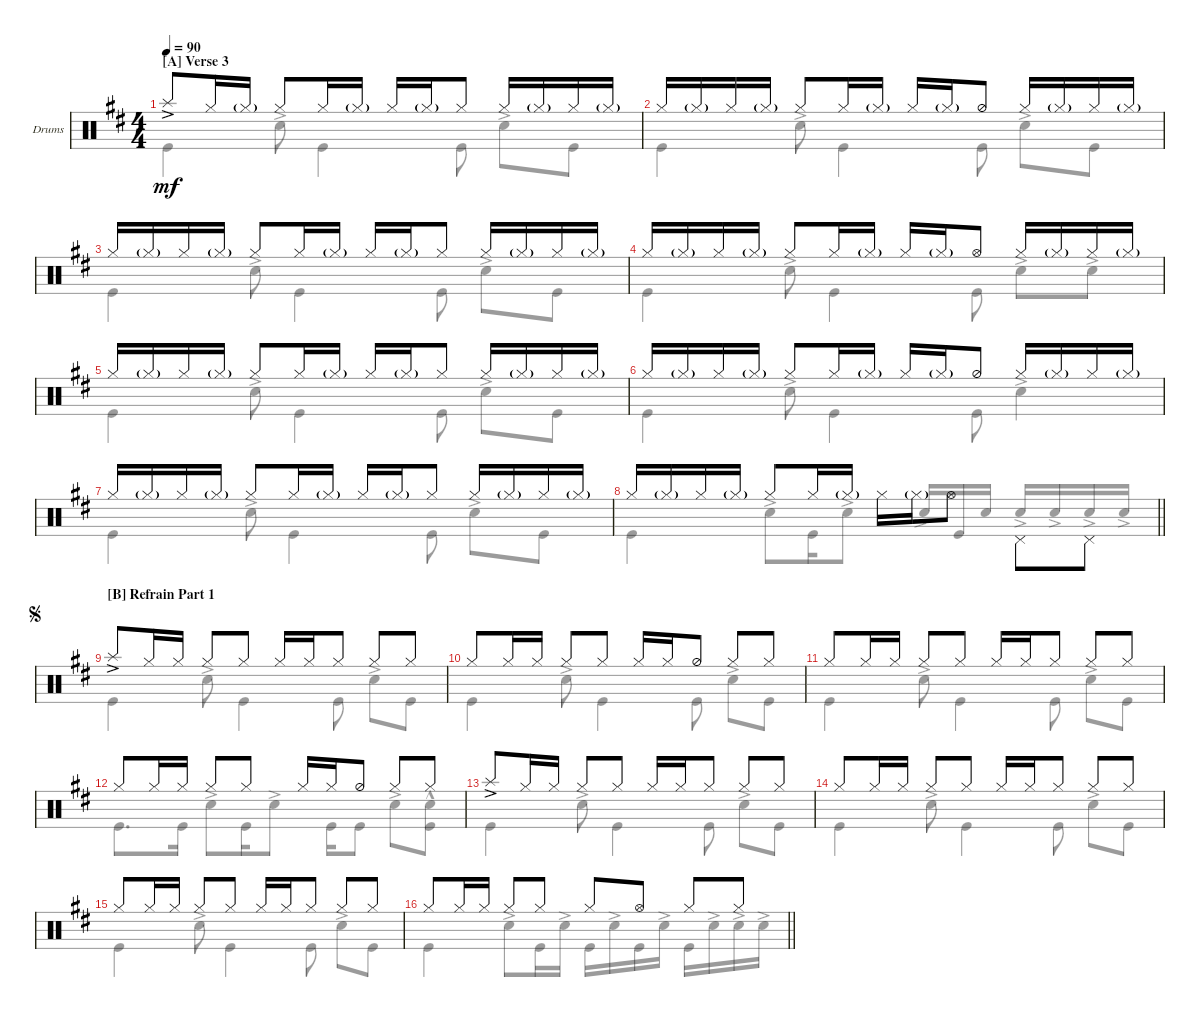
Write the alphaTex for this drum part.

\defaultSystemsLayout 4
\bracketExtendMode groupsimilarinstruments
\firstSystemTrackNameOrientation horizontal
\otherSystemsTrackNameOrientation horizontal
\track ("Drumkit" "Drums") {instrument percussion}
\staff {score}
\articulation defaults
\voice
\ts (4 4)
\section ("A" "Verse 3")
\tempo 90
\clef neutral
\scale
0.5
\ks d "Splash (hit)"{ac}.8{dy mf} "Hi-Hat (closed)".16 "Hi-Hat (closed)"{g}.16 "Hi-Hat (closed)".8 "Hi-Hat (closed)".16 "Hi-Hat (closed)"{g}.16 "Hi-Hat (closed)".16 "Hi-Hat (closed)"{g}.16 "Hi-Hat (closed)".8 "Hi-Hat (closed)".16 "Hi-Hat (closed)"{g}.16 "Hi-Hat (closed)".16 "Hi-Hat (closed)"{g}.16
|
\scale
0.5 "Hi-Hat (closed)".16 "Hi-Hat (closed)"{g}.16 "Hi-Hat (closed)".16 "Hi-Hat (closed)"{g}.16 "Hi-Hat (closed)".8 "Hi-Hat (closed)".16 "Hi-Hat (closed)"{g}.16 "Hi-Hat (closed)".16 "Hi-Hat (closed)"{g}.16 "Hi-Hat (half)".8 "Hi-Hat (closed)".16 "Hi-Hat (closed)"{g}.16 "Hi-Hat (closed)".16 "Hi-Hat (closed)"{g}.16 |
\scale
0.5 "Hi-Hat (closed)".16 "Hi-Hat (closed)"{g}.16 "Hi-Hat (closed)".16 "Hi-Hat (closed)"{g}.16 "Hi-Hat (closed)".8 "Hi-Hat (closed)".16 "Hi-Hat (closed)"{g}.16 "Hi-Hat (closed)".16 "Hi-Hat (closed)"{g}.16 "Hi-Hat (closed)".8 "Hi-Hat (closed)".16 "Hi-Hat (closed)"{g}.16 "Hi-Hat (closed)".16 "Hi-Hat (closed)"{g}.16 |
\scale
0.5 "Hi-Hat (closed)".16 "Hi-Hat (closed)"{g}.16 "Hi-Hat (closed)".16 "Hi-Hat (closed)"{g}.16 "Hi-Hat (closed)".8 "Hi-Hat (closed)".16 "Hi-Hat (closed)"{g}.16 "Hi-Hat (closed)".16 "Hi-Hat (closed)"{g}.16 "Hi-Hat (open)".8 "Hi-Hat (closed)".16 "Hi-Hat (closed)"{g}.16 "Hi-Hat (closed)".16 "Hi-Hat (closed)"{g}.16 |
\scale
0.5 "Hi-Hat (closed)".16 "Hi-Hat (closed)"{g}.16 "Hi-Hat (closed)".16 "Hi-Hat (closed)"{g}.16 "Hi-Hat (closed)".8 "Hi-Hat (closed)".16 "Hi-Hat (closed)"{g}.16 "Hi-Hat (closed)".16 "Hi-Hat (closed)"{g}.16 "Hi-Hat (closed)".8 "Hi-Hat (closed)".16 "Hi-Hat (closed)"{g}.16 "Hi-Hat (closed)".16 "Hi-Hat (closed)"{g}.16 |
\scale
0.5 "Hi-Hat (closed)".16 "Hi-Hat (closed)"{g}.16 "Hi-Hat (closed)".16 "Hi-Hat (closed)"{g}.16 "Hi-Hat (closed)".8 "Hi-Hat (closed)".16 "Hi-Hat (closed)"{g}.16 "Hi-Hat (closed)".16 "Hi-Hat (closed)"{g}.16 "Hi-Hat (half)".8 "Hi-Hat (closed)".16 "Hi-Hat (closed)"{g}.16 "Hi-Hat (closed)".16 "Hi-Hat (closed)"{g}.16 |
\scale
0.5 "Hi-Hat (closed)".16 "Hi-Hat (closed)"{g}.16 "Hi-Hat (closed)".16 "Hi-Hat (closed)"{g}.16 "Hi-Hat (closed)".8 "Hi-Hat (closed)".16 "Hi-Hat (closed)"{g}.16 "Hi-Hat (closed)".16 "Hi-Hat (closed)"{g}.16 "Hi-Hat (closed)".8 "Hi-Hat (closed)".16 "Hi-Hat (closed)"{g}.16 "Hi-Hat (closed)".16 "Hi-Hat (closed)"{g}.16 |
\scale
0.5
\barLineRight lightlight "Hi-Hat (closed)".16 "Hi-Hat (closed)"{g}.16 "Hi-Hat (closed)".16 "Hi-Hat (closed)"{g}.16 "Hi-Hat (closed)".8 "Hi-Hat (closed)".16 "Hi-Hat (closed)"{g}.16 "Hi-Hat (closed)".16 "Hi-Hat (closed)"{g}.16 "Hi-Hat (open)".8 "Pedal Hi-Hat (hit)".8{beam invert} "Pedal Hi-Hat (hit)".8
|
\section ("B" "Refrain Part 1")
\jump segno
\scale
0.5 "Splash (hit)"{ac}.8 "Hi-Hat (closed)".16 "Hi-Hat (closed)".16 "Hi-Hat (closed)".8 "Hi-Hat (closed)".8 "Hi-Hat (closed)".16 "Hi-Hat (closed)".16 "Hi-Hat (closed)".8 "Hi-Hat (closed)".8 "Hi-Hat (closed)".8 |
\scale
0.5 "Hi-Hat (closed)".8 "Hi-Hat (closed)".16 "Hi-Hat (closed)".16 "Hi-Hat (closed)".8 "Hi-Hat (closed)".8 "Hi-Hat (closed)".16 "Hi-Hat (closed)".16 "Hi-Hat (half)".8 "Hi-Hat (closed)".8 "Hi-Hat (closed)".8 |
\scale
0.5 "Hi-Hat (closed)".8 "Hi-Hat (closed)".16 "Hi-Hat (closed)".16 "Hi-Hat (closed)".8 "Hi-Hat (closed)".8 "Hi-Hat (closed)".16 "Hi-Hat (closed)".16 "Hi-Hat (closed)".8 "Hi-Hat (closed)".8 "Hi-Hat (closed)".8 |
\scale
0.5 "Hi-Hat (closed)".8 "Hi-Hat (closed)".16 "Hi-Hat (closed)".16 "Hi-Hat (closed)".8 "Hi-Hat (closed)".8 "Hi-Hat (closed)".16 "Hi-Hat (closed)".16 "Hi-Hat (half)".8 "Hi-Hat (closed)".8 "Hi-Hat (closed)".8 |
\scale
0.5 "Splash (hit)"{ac}.8 "Hi-Hat (closed)".16 "Hi-Hat (closed)".16 "Hi-Hat (closed)".8 "Hi-Hat (closed)".8 "Hi-Hat (closed)".16 "Hi-Hat (closed)".16 "Hi-Hat (closed)".8 "Hi-Hat (closed)".8 "Hi-Hat (closed)".8 |
\scale
0.5 "Hi-Hat (closed)".8 "Hi-Hat (closed)".16 "Hi-Hat (closed)".16 "Hi-Hat (closed)".8 "Hi-Hat (closed)".8 "Hi-Hat (closed)".16 "Hi-Hat (closed)".16 "Hi-Hat (closed)".8 "Hi-Hat (closed)".8 "Hi-Hat (closed)".8 |
\scale
0.5 "Hi-Hat (closed)".8 "Hi-Hat (closed)".16 "Hi-Hat (closed)".16 "Hi-Hat (closed)".8 "Hi-Hat (closed)".8 "Hi-Hat (closed)".16 "Hi-Hat (closed)".16 "Hi-Hat (closed)".8 "Hi-Hat (closed)".8 "Hi-Hat (closed)".8 |
\scale
0.5
\barLineRight lightlight "Hi-Hat (closed)".8 "Hi-Hat (closed)".16 "Hi-Hat (closed)".16 "Hi-Hat (closed)".8 "Hi-Hat (closed)".8 "Hi-Hat (closed)".8 "Hi-Hat (open)".8 "Hi-Hat (closed)".8 "Hi-Hat (closed)".8
\voice
\clef neutral
\ottava regular
\simile none
\scale
0.5
\ks d "Kick (hit)".4{dy mf} "Snare (hit) 2"{ac}.8 "Kick (hit)".4 "Kick (hit)".8 "Snare (hit) 2"{ac}.8 "Kick (hit)".8
|
\scale
0.5 "Kick (hit)".4 "Snare (hit) 2"{ac}.8 "Kick (hit)".4 "Kick (hit)".8 "Snare (hit) 2"{ac}.8 "Kick (hit)".8 |
\scale
0.5 "Kick (hit)".4 "Snare (hit) 2"{ac}.8 "Kick (hit)".4 "Kick (hit)".8 "Snare (hit) 2"{ac}.8 "Kick (hit)".8 |
\scale
0.5 "Kick (hit)".4 "Snare (hit) 2"{ac}.8 "Kick (hit)".4 "Kick (hit)".8 "Snare (hit) 2"{ac}.8 "Snare (hit) 2"{ac}.8 |
\scale
0.5 "Kick (hit)".4 "Snare (hit) 2"{ac}.8 "Kick (hit)".4 "Kick (hit)".8 "Snare (hit) 2"{ac}.8 "Kick (hit)".8 |
\scale
0.5 "Kick (hit)".4 "Snare (hit) 2"{ac}.8 "Kick (hit)".4 "Kick (hit)".8 "Snare (hit) 2"{ac}.4 |
\scale
0.5 "Kick (hit)".4 "Snare (hit) 2"{ac}.8 "Kick (hit)".4 "Kick (hit)".8 "Snare (hit) 2"{ac}.8 "Kick (hit)".8 |
\scale
0.5
\barLineRight lightlight "Kick (hit)".4 "Snare (hit) 2"{ac}.8 "Kick (hit)".16 "Snare (hit) 2"{ac}.8 "Snare (hit) 2"{ac}.16 "Kick (hit)".16 "Snare (hit) 2".16 "Snare (hit) 2"{ac}.16{beam invert} "Snare (hit) 2"{ac}.16 "Snare (hit) 2"{ac}.16 "Snare (hit) 2"{ac}.16
|
\scale
0.5 "Kick (hit)".4 "Snare (hit) 2"{ac}.8 "Kick (hit)".4 "Kick (hit)".8 "Snare (hit) 2"{ac}.8 "Kick (hit)".8 |
\scale
0.5 "Kick (hit)".4 "Snare (hit) 2"{ac}.8 "Kick (hit)".4 "Kick (hit)".8 "Snare (hit) 2"{ac}.8 "Kick (hit)".8 |
\scale
0.5 "Kick (hit)".4 "Snare (hit) 2"{ac}.8 "Kick (hit)".4 "Kick (hit)".8 "Snare (hit) 2"{ac}.8 "Kick (hit)".8 |
\scale
0.5 "Kick (hit)".8{d} "Kick (hit)".16 "Snare (hit) 2"{ac}.8 "Kick (hit)".16 "Snare (hit) 2"{ac}.8 "Kick (hit)".16 "Kick (hit)".8 "Snare (hit) 2"{ac}.8 ("Kick (hit)" "Snare (hit) 2"{hac}).8 |
\scale
0.5 "Kick (hit)".4 "Snare (hit) 2"{ac}.8 "Kick (hit)".4 "Kick (hit)".8 "Snare (hit) 2"{ac}.8 "Kick (hit)".8 |
\scale
0.5 "Kick (hit)".4 "Snare (hit) 2"{ac}.8 "Kick (hit)".4 "Kick (hit)".8 "Snare (hit) 2"{ac}.8 "Kick (hit)".8 |
\scale
0.5 "Kick (hit)".4 "Snare (hit) 2"{ac}.8 "Kick (hit)".4 "Kick (hit)".8 "Snare (hit) 2"{ac}.8 "Kick (hit)".8 |
\scale
0.5
\barLineRight lightlight "Kick (hit)".4 "Snare (hit) 2"{ac}.8 "Kick (hit)".16 "Snare (hit) 2"{ac}.16 "Kick (hit)".16 "Snare (hit) 2"{ac}.16 "Kick (hit)".16 "Snare (hit) 2"{ac}.16 "Kick (hit)".16 "Snare (hit) 2"{ac}.16 "Snare (hit) 2"{ac}.16 "Snare (hit) 2"{ac}.16
